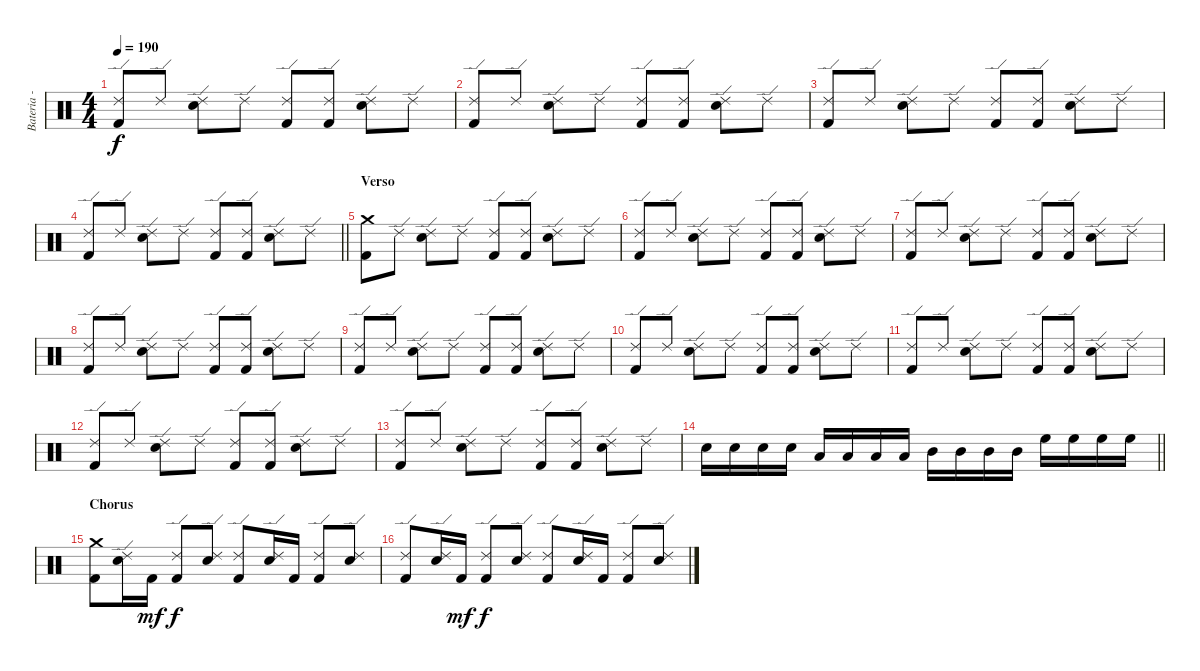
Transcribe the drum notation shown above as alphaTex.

\track ("Bateria - Larzon" "Bateria - ") {instrument percussion}
\staff {score}
\articulation defaults
\ts (4 4)
\tempo 190
\clef neutral
\ks c
("Kick (hit) 2" "Ride (edge) 2").8{dy f} "Ride (edge) 2".8 ("Electric Snare (hit)" "Ride (edge) 2").8 "Ride (edge) 2".8 ("Kick (hit) 2" "Ride (edge) 2").8 ("Kick (hit) 2" "Ride (edge) 2").8 ("Electric Snare (hit)" "Ride (edge) 2").8 "Ride (edge) 2".8 |
("Kick (hit) 2" "Ride (edge) 2").8 "Ride (edge) 2".8 ("Electric Snare (hit)" "Ride (edge) 2").8 "Ride (edge) 2".8 ("Kick (hit) 2" "Ride (edge) 2").8 ("Kick (hit) 2" "Ride (edge) 2").8 ("Electric Snare (hit)" "Ride (edge) 2").8 "Ride (edge) 2".8 |
("Kick (hit) 2" "Ride (edge) 2").8 "Ride (edge) 2".8 ("Electric Snare (hit)" "Ride (edge) 2").8 "Ride (edge) 2".8 ("Kick (hit) 2" "Ride (edge) 2").8 ("Kick (hit) 2" "Ride (edge) 2").8 ("Electric Snare (hit)" "Ride (edge) 2").8 "Ride (edge) 2".8 |
\barLineRight lightlight
("Kick (hit) 2" "Ride (edge) 2").8 "Ride (edge) 2".8 ("Electric Snare (hit)" "Ride (edge) 2").8 "Ride (edge) 2".8 ("Kick (hit) 2" "Ride (edge) 2").8 ("Kick (hit) 2" "Ride (edge) 2").8 ("Electric Snare (hit)" "Ride (edge) 2").8 "Ride (edge) 2".8 |
\section ("" "Verso")
("Kick (hit) 2" "Crash medium (hit)").8 "Ride (edge) 2".8 ("Electric Snare (hit)" "Ride (edge) 2").8 "Ride (edge) 2".8 ("Kick (hit) 2" "Ride (edge) 2").8 ("Kick (hit) 2" "Ride (edge) 2").8 ("Electric Snare (hit)" "Ride (edge) 2").8 "Ride (edge) 2".8 |
("Kick (hit) 2" "Ride (edge) 2").8 "Ride (edge) 2".8 ("Electric Snare (hit)" "Ride (edge) 2").8 "Ride (edge) 2".8 ("Kick (hit) 2" "Ride (edge) 2").8 ("Kick (hit) 2" "Ride (edge) 2").8 ("Electric Snare (hit)" "Ride (edge) 2").8 "Ride (edge) 2".8 |
("Kick (hit) 2" "Ride (edge) 2").8 "Ride (edge) 2".8 ("Electric Snare (hit)" "Ride (edge) 2").8 "Ride (edge) 2".8 ("Kick (hit) 2" "Ride (edge) 2").8 ("Kick (hit) 2" "Ride (edge) 2").8 ("Electric Snare (hit)" "Ride (edge) 2").8 "Ride (edge) 2".8 |
("Kick (hit) 2" "Ride (edge) 2").8 "Ride (edge) 2".8 ("Electric Snare (hit)" "Ride (edge) 2").8 "Ride (edge) 2".8 ("Kick (hit) 2" "Ride (edge) 2").8 ("Kick (hit) 2" "Ride (edge) 2").8 ("Electric Snare (hit)" "Ride (edge) 2").8 "Ride (edge) 2".8 |
("Kick (hit) 2" "Ride (edge) 2").8 "Ride (edge) 2".8 ("Electric Snare (hit)" "Ride (edge) 2").8 "Ride (edge) 2".8 ("Kick (hit) 2" "Ride (edge) 2").8 ("Kick (hit) 2" "Ride (edge) 2").8 ("Electric Snare (hit)" "Ride (edge) 2").8 "Ride (edge) 2".8 |
("Kick (hit) 2" "Ride (edge) 2").8 "Ride (edge) 2".8 ("Electric Snare (hit)" "Ride (edge) 2").8 "Ride (edge) 2".8 ("Kick (hit) 2" "Ride (edge) 2").8 ("Kick (hit) 2" "Ride (edge) 2").8 ("Electric Snare (hit)" "Ride (edge) 2").8 "Ride (edge) 2".8 |
("Kick (hit) 2" "Ride (edge) 2").8 "Ride (edge) 2".8 ("Electric Snare (hit)" "Ride (edge) 2").8 "Ride (edge) 2".8 ("Kick (hit) 2" "Ride (edge) 2").8 ("Kick (hit) 2" "Ride (edge) 2").8 ("Electric Snare (hit)" "Ride (edge) 2").8 "Ride (edge) 2".8 |
("Kick (hit) 2" "Ride (edge) 2").8 "Ride (edge) 2".8 ("Electric Snare (hit)" "Ride (edge) 2").8 "Ride (edge) 2".8 ("Kick (hit) 2" "Ride (edge) 2").8 ("Kick (hit) 2" "Ride (edge) 2").8 ("Electric Snare (hit)" "Ride (edge) 2").8 "Ride (edge) 2".8 |
("Kick (hit) 2" "Ride (edge) 2").8 "Ride (edge) 2".8 ("Electric Snare (hit)" "Ride (edge) 2").8 "Ride (edge) 2".8 ("Kick (hit) 2" "Ride (edge) 2").8 ("Kick (hit) 2" "Ride (edge) 2").8 ("Electric Snare (hit)" "Ride (edge) 2").8 "Ride (edge) 2".8 |
\barLineRight lightlight "Electric Snare (hit)".16 "Electric Snare (hit)".16 "Electric Snare (hit)".16 "Electric Snare (hit)".16 "Low Tom (hit)".16 "Low Tom (hit)".16 "Low Tom (hit)".16 "Low Tom (hit)".16 "Mid Tom (hit)".16 "Mid Tom (hit)".16 "Mid Tom (hit)".16 "Mid Tom (hit)".16 "High Floor Tom (hit)".16 "High Floor Tom (hit)".16 "High Floor Tom (hit)".16 "High Floor Tom (hit)".16
|
\section ("" "Chorus")
("Kick (hit) 2" "Crash medium (hit)").8 ("Electric Snare (hit)" "Ride (edge) 2").16 "Kick (hit) 2".16{dy mf} ("Kick (hit) 2" "Ride (edge) 2").8{dy f} ("Electric Snare (hit)" "Ride (edge) 2").8 ("Kick (hit) 2" "Ride (edge) 2").8 ("Electric Snare (hit)" "Ride (edge) 2").16 "Kick (hit) 2".16 ("Kick (hit) 2" "Ride (edge) 2").8 ("Electric Snare (hit)" "Ride (edge) 2").8 |
("Kick (hit) 2" "Ride (edge) 2").8 ("Electric Snare (hit)" "Ride (edge) 2").16 "Kick (hit) 2".16{dy mf} ("Kick (hit) 2" "Ride (edge) 2").8{dy f} ("Electric Snare (hit)" "Ride (edge) 2").8 ("Kick (hit) 2" "Ride (edge) 2").8 ("Electric Snare (hit)" "Ride (edge) 2").16 "Kick (hit) 2".16 ("Kick (hit) 2" "Ride (edge) 2").8 ("Electric Snare (hit)" "Ride (edge) 2").8
